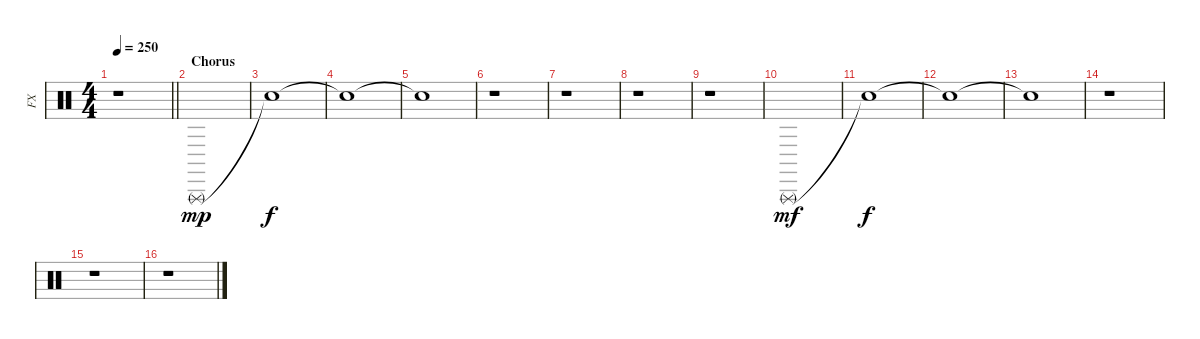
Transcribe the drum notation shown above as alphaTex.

\track ("FX" "FX") {instrument percussion}
\staff {score}
\articulation defaults
\ts (4 4)
\tempo 250
\clef neutral
\barLineRight lightlight
\ks c
r.1{dy mp} |
\section ("" "Chorus")
"Triangle (rnute)".1 |
"Snare (hit)"{t}.1{dy f} |
"Snare (hit)"{t}.1 |
"Snare (hit)"{t}.1 |
r.1 |
r.1 |
r.1 |
r.1 |
"Triangle (rnute)".1{dy mf} |
"Snare (hit)"{t}.1{dy f} |
"Snare (hit)"{t}.1 |
"Snare (hit)"{t}.1 |
r.1 |
r.1 |
r.1
